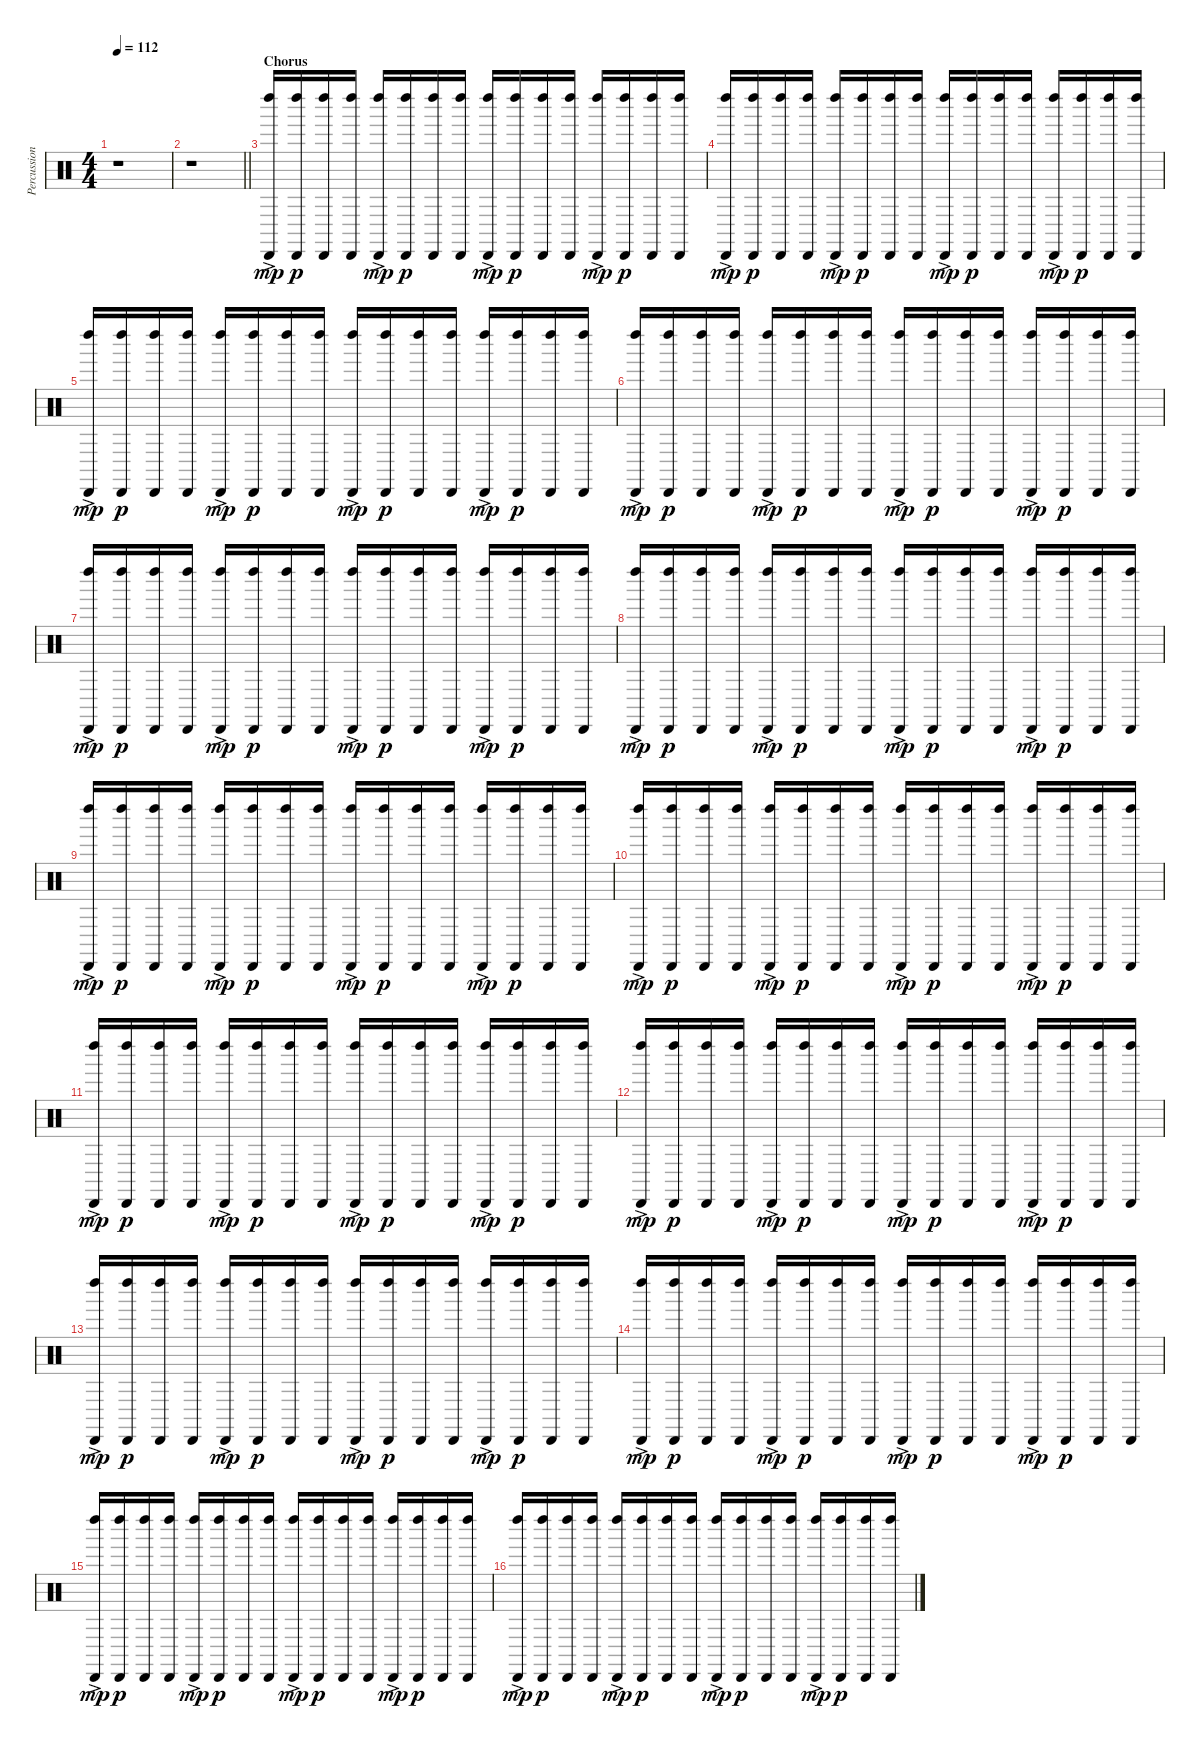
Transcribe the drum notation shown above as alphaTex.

\track ("Percussion" "Percussion") {instrument percussion}
\staff {score}
\articulation defaults
\ts (4 4)
\tempo 112
\clef neutral
\ks c
r.1{dy p} |
\barLineRight lightlight
r.1 |
\section ("" "Chorus")
("Left Maraca (hit)"{ac} "Cabasa (hit)"{ac}).16{dy mp} ("Left Maraca (hit)" "Cabasa (hit)").16{dy p} ("Left Maraca (hit)" "Cabasa (hit)").16 ("Left Maraca (hit)" "Cabasa (hit)").16 ("Left Maraca (hit)"{ac} "Cabasa (hit)"{ac}).16{dy mp} ("Left Maraca (hit)" "Cabasa (hit)").16{dy p} ("Left Maraca (hit)" "Cabasa (hit)").16 ("Left Maraca (hit)" "Cabasa (hit)").16 ("Left Maraca (hit)"{ac} "Cabasa (hit)"{ac}).16{dy mp} ("Left Maraca (hit)" "Cabasa (hit)").16{dy p} ("Left Maraca (hit)" "Cabasa (hit)").16 ("Left Maraca (hit)" "Cabasa (hit)").16 ("Left Maraca (hit)"{ac} "Cabasa (hit)"{ac}).16{dy mp} ("Left Maraca (hit)" "Cabasa (hit)").16{dy p} ("Left Maraca (hit)" "Cabasa (hit)").16 ("Left Maraca (hit)" "Cabasa (hit)").16 |
("Left Maraca (hit)"{ac} "Cabasa (hit)"{ac}).16{dy mp} ("Left Maraca (hit)" "Cabasa (hit)").16{dy p} ("Left Maraca (hit)" "Cabasa (hit)").16 ("Left Maraca (hit)" "Cabasa (hit)").16 ("Left Maraca (hit)"{ac} "Cabasa (hit)"{ac}).16{dy mp} ("Left Maraca (hit)" "Cabasa (hit)").16{dy p} ("Left Maraca (hit)" "Cabasa (hit)").16 ("Left Maraca (hit)" "Cabasa (hit)").16 ("Left Maraca (hit)"{ac} "Cabasa (hit)"{ac}).16{dy mp} ("Left Maraca (hit)" "Cabasa (hit)").16{dy p} ("Left Maraca (hit)" "Cabasa (hit)").16 ("Left Maraca (hit)" "Cabasa (hit)").16 ("Left Maraca (hit)"{ac} "Cabasa (hit)"{ac}).16{dy mp} ("Left Maraca (hit)" "Cabasa (hit)").16{dy p} ("Left Maraca (hit)" "Cabasa (hit)").16 ("Left Maraca (hit)" "Cabasa (hit)").16 |
("Left Maraca (hit)"{ac} "Cabasa (hit)"{ac}).16{dy mp} ("Left Maraca (hit)" "Cabasa (hit)").16{dy p} ("Left Maraca (hit)" "Cabasa (hit)").16 ("Left Maraca (hit)" "Cabasa (hit)").16 ("Left Maraca (hit)"{ac} "Cabasa (hit)"{ac}).16{dy mp} ("Left Maraca (hit)" "Cabasa (hit)").16{dy p} ("Left Maraca (hit)" "Cabasa (hit)").16 ("Left Maraca (hit)" "Cabasa (hit)").16 ("Left Maraca (hit)"{ac} "Cabasa (hit)"{ac}).16{dy mp} ("Left Maraca (hit)" "Cabasa (hit)").16{dy p} ("Left Maraca (hit)" "Cabasa (hit)").16 ("Left Maraca (hit)" "Cabasa (hit)").16 ("Left Maraca (hit)"{ac} "Cabasa (hit)"{ac}).16{dy mp} ("Left Maraca (hit)" "Cabasa (hit)").16{dy p} ("Left Maraca (hit)" "Cabasa (hit)").16 ("Left Maraca (hit)" "Cabasa (hit)").16 |
("Left Maraca (hit)"{ac} "Cabasa (hit)"{ac}).16{dy mp} ("Left Maraca (hit)" "Cabasa (hit)").16{dy p} ("Left Maraca (hit)" "Cabasa (hit)").16 ("Left Maraca (hit)" "Cabasa (hit)").16 ("Left Maraca (hit)"{ac} "Cabasa (hit)"{ac}).16{dy mp} ("Left Maraca (hit)" "Cabasa (hit)").16{dy p} ("Left Maraca (hit)" "Cabasa (hit)").16 ("Left Maraca (hit)" "Cabasa (hit)").16 ("Left Maraca (hit)"{ac} "Cabasa (hit)"{ac}).16{dy mp} ("Left Maraca (hit)" "Cabasa (hit)").16{dy p} ("Left Maraca (hit)" "Cabasa (hit)").16 ("Left Maraca (hit)" "Cabasa (hit)").16 ("Left Maraca (hit)"{ac} "Cabasa (hit)"{ac}).16{dy mp} ("Left Maraca (hit)" "Cabasa (hit)").16{dy p} ("Left Maraca (hit)" "Cabasa (hit)").16 ("Left Maraca (hit)" "Cabasa (hit)").16 |
("Left Maraca (hit)"{ac} "Cabasa (hit)"{ac}).16{dy mp} ("Left Maraca (hit)" "Cabasa (hit)").16{dy p} ("Left Maraca (hit)" "Cabasa (hit)").16 ("Left Maraca (hit)" "Cabasa (hit)").16 ("Left Maraca (hit)"{ac} "Cabasa (hit)"{ac}).16{dy mp} ("Left Maraca (hit)" "Cabasa (hit)").16{dy p} ("Left Maraca (hit)" "Cabasa (hit)").16 ("Left Maraca (hit)" "Cabasa (hit)").16 ("Left Maraca (hit)"{ac} "Cabasa (hit)"{ac}).16{dy mp} ("Left Maraca (hit)" "Cabasa (hit)").16{dy p} ("Left Maraca (hit)" "Cabasa (hit)").16 ("Left Maraca (hit)" "Cabasa (hit)").16 ("Left Maraca (hit)"{ac} "Cabasa (hit)"{ac}).16{dy mp} ("Left Maraca (hit)" "Cabasa (hit)").16{dy p} ("Left Maraca (hit)" "Cabasa (hit)").16 ("Left Maraca (hit)" "Cabasa (hit)").16 |
("Left Maraca (hit)"{ac} "Cabasa (hit)"{ac}).16{dy mp} ("Left Maraca (hit)" "Cabasa (hit)").16{dy p} ("Left Maraca (hit)" "Cabasa (hit)").16 ("Left Maraca (hit)" "Cabasa (hit)").16 ("Left Maraca (hit)"{ac} "Cabasa (hit)"{ac}).16{dy mp} ("Left Maraca (hit)" "Cabasa (hit)").16{dy p} ("Left Maraca (hit)" "Cabasa (hit)").16 ("Left Maraca (hit)" "Cabasa (hit)").16 ("Left Maraca (hit)"{ac} "Cabasa (hit)"{ac}).16{dy mp} ("Left Maraca (hit)" "Cabasa (hit)").16{dy p} ("Left Maraca (hit)" "Cabasa (hit)").16 ("Left Maraca (hit)" "Cabasa (hit)").16 ("Left Maraca (hit)"{ac} "Cabasa (hit)"{ac}).16{dy mp} ("Left Maraca (hit)" "Cabasa (hit)").16{dy p} ("Left Maraca (hit)" "Cabasa (hit)").16 ("Left Maraca (hit)" "Cabasa (hit)").16 |
("Left Maraca (hit)"{ac} "Cabasa (hit)"{ac}).16{dy mp} ("Left Maraca (hit)" "Cabasa (hit)").16{dy p} ("Left Maraca (hit)" "Cabasa (hit)").16 ("Left Maraca (hit)" "Cabasa (hit)").16 ("Left Maraca (hit)"{ac} "Cabasa (hit)"{ac}).16{dy mp} ("Left Maraca (hit)" "Cabasa (hit)").16{dy p} ("Left Maraca (hit)" "Cabasa (hit)").16 ("Left Maraca (hit)" "Cabasa (hit)").16 ("Left Maraca (hit)"{ac} "Cabasa (hit)"{ac}).16{dy mp} ("Left Maraca (hit)" "Cabasa (hit)").16{dy p} ("Left Maraca (hit)" "Cabasa (hit)").16 ("Left Maraca (hit)" "Cabasa (hit)").16 ("Left Maraca (hit)"{ac} "Cabasa (hit)"{ac}).16{dy mp} ("Left Maraca (hit)" "Cabasa (hit)").16{dy p} ("Left Maraca (hit)" "Cabasa (hit)").16 ("Left Maraca (hit)" "Cabasa (hit)").16 |
("Left Maraca (hit)"{ac} "Cabasa (hit)"{ac}).16{dy mp} ("Left Maraca (hit)" "Cabasa (hit)").16{dy p} ("Left Maraca (hit)" "Cabasa (hit)").16 ("Left Maraca (hit)" "Cabasa (hit)").16 ("Left Maraca (hit)"{ac} "Cabasa (hit)"{ac}).16{dy mp} ("Left Maraca (hit)" "Cabasa (hit)").16{dy p} ("Left Maraca (hit)" "Cabasa (hit)").16 ("Left Maraca (hit)" "Cabasa (hit)").16 ("Left Maraca (hit)"{ac} "Cabasa (hit)"{ac}).16{dy mp} ("Left Maraca (hit)" "Cabasa (hit)").16{dy p} ("Left Maraca (hit)" "Cabasa (hit)").16 ("Left Maraca (hit)" "Cabasa (hit)").16 ("Left Maraca (hit)"{ac} "Cabasa (hit)"{ac}).16{dy mp} ("Left Maraca (hit)" "Cabasa (hit)").16{dy p} ("Left Maraca (hit)" "Cabasa (hit)").16 ("Left Maraca (hit)" "Cabasa (hit)").16 |
("Left Maraca (hit)"{ac} "Cabasa (hit)"{ac}).16{dy mp} ("Left Maraca (hit)" "Cabasa (hit)").16{dy p} ("Left Maraca (hit)" "Cabasa (hit)").16 ("Left Maraca (hit)" "Cabasa (hit)").16 ("Left Maraca (hit)"{ac} "Cabasa (hit)"{ac}).16{dy mp} ("Left Maraca (hit)" "Cabasa (hit)").16{dy p} ("Left Maraca (hit)" "Cabasa (hit)").16 ("Left Maraca (hit)" "Cabasa (hit)").16 ("Left Maraca (hit)"{ac} "Cabasa (hit)"{ac}).16{dy mp} ("Left Maraca (hit)" "Cabasa (hit)").16{dy p} ("Left Maraca (hit)" "Cabasa (hit)").16 ("Left Maraca (hit)" "Cabasa (hit)").16 ("Left Maraca (hit)"{ac} "Cabasa (hit)"{ac}).16{dy mp} ("Left Maraca (hit)" "Cabasa (hit)").16{dy p} ("Left Maraca (hit)" "Cabasa (hit)").16 ("Left Maraca (hit)" "Cabasa (hit)").16 |
("Left Maraca (hit)"{ac} "Cabasa (hit)"{ac}).16{dy mp} ("Left Maraca (hit)" "Cabasa (hit)").16{dy p} ("Left Maraca (hit)" "Cabasa (hit)").16 ("Left Maraca (hit)" "Cabasa (hit)").16 ("Left Maraca (hit)"{ac} "Cabasa (hit)"{ac}).16{dy mp} ("Left Maraca (hit)" "Cabasa (hit)").16{dy p} ("Left Maraca (hit)" "Cabasa (hit)").16 ("Left Maraca (hit)" "Cabasa (hit)").16 ("Left Maraca (hit)"{ac} "Cabasa (hit)"{ac}).16{dy mp} ("Left Maraca (hit)" "Cabasa (hit)").16{dy p} ("Left Maraca (hit)" "Cabasa (hit)").16 ("Left Maraca (hit)" "Cabasa (hit)").16 ("Left Maraca (hit)"{ac} "Cabasa (hit)"{ac}).16{dy mp} ("Left Maraca (hit)" "Cabasa (hit)").16{dy p} ("Left Maraca (hit)" "Cabasa (hit)").16 ("Left Maraca (hit)" "Cabasa (hit)").16 |
("Left Maraca (hit)"{ac} "Cabasa (hit)"{ac}).16{dy mp} ("Left Maraca (hit)" "Cabasa (hit)").16{dy p} ("Left Maraca (hit)" "Cabasa (hit)").16 ("Left Maraca (hit)" "Cabasa (hit)").16 ("Left Maraca (hit)"{ac} "Cabasa (hit)"{ac}).16{dy mp} ("Left Maraca (hit)" "Cabasa (hit)").16{dy p} ("Left Maraca (hit)" "Cabasa (hit)").16 ("Left Maraca (hit)" "Cabasa (hit)").16 ("Left Maraca (hit)"{ac} "Cabasa (hit)"{ac}).16{dy mp} ("Left Maraca (hit)" "Cabasa (hit)").16{dy p} ("Left Maraca (hit)" "Cabasa (hit)").16 ("Left Maraca (hit)" "Cabasa (hit)").16 ("Left Maraca (hit)"{ac} "Cabasa (hit)"{ac}).16{dy mp} ("Left Maraca (hit)" "Cabasa (hit)").16{dy p} ("Left Maraca (hit)" "Cabasa (hit)").16 ("Left Maraca (hit)" "Cabasa (hit)").16 |
("Left Maraca (hit)"{ac} "Cabasa (hit)"{ac}).16{dy mp} ("Left Maraca (hit)" "Cabasa (hit)").16{dy p} ("Left Maraca (hit)" "Cabasa (hit)").16 ("Left Maraca (hit)" "Cabasa (hit)").16 ("Left Maraca (hit)"{ac} "Cabasa (hit)"{ac}).16{dy mp} ("Left Maraca (hit)" "Cabasa (hit)").16{dy p} ("Left Maraca (hit)" "Cabasa (hit)").16 ("Left Maraca (hit)" "Cabasa (hit)").16 ("Left Maraca (hit)"{ac} "Cabasa (hit)"{ac}).16{dy mp} ("Left Maraca (hit)" "Cabasa (hit)").16{dy p} ("Left Maraca (hit)" "Cabasa (hit)").16 ("Left Maraca (hit)" "Cabasa (hit)").16 ("Left Maraca (hit)"{ac} "Cabasa (hit)"{ac}).16{dy mp} ("Left Maraca (hit)" "Cabasa (hit)").16{dy p} ("Left Maraca (hit)" "Cabasa (hit)").16 ("Left Maraca (hit)" "Cabasa (hit)").16 |
("Left Maraca (hit)"{ac} "Cabasa (hit)"{ac}).16{dy mp} ("Left Maraca (hit)" "Cabasa (hit)").16{dy p} ("Left Maraca (hit)" "Cabasa (hit)").16 ("Left Maraca (hit)" "Cabasa (hit)").16 ("Left Maraca (hit)"{ac} "Cabasa (hit)"{ac}).16{dy mp} ("Left Maraca (hit)" "Cabasa (hit)").16{dy p} ("Left Maraca (hit)" "Cabasa (hit)").16 ("Left Maraca (hit)" "Cabasa (hit)").16 ("Left Maraca (hit)"{ac} "Cabasa (hit)"{ac}).16{dy mp} ("Left Maraca (hit)" "Cabasa (hit)").16{dy p} ("Left Maraca (hit)" "Cabasa (hit)").16 ("Left Maraca (hit)" "Cabasa (hit)").16 ("Left Maraca (hit)"{ac} "Cabasa (hit)"{ac}).16{dy mp} ("Left Maraca (hit)" "Cabasa (hit)").16{dy p} ("Left Maraca (hit)" "Cabasa (hit)").16 ("Left Maraca (hit)" "Cabasa (hit)").16 |
("Left Maraca (hit)"{ac} "Cabasa (hit)"{ac}).16{dy mp} ("Left Maraca (hit)" "Cabasa (hit)").16{dy p} ("Left Maraca (hit)" "Cabasa (hit)").16 ("Left Maraca (hit)" "Cabasa (hit)").16 ("Left Maraca (hit)"{ac} "Cabasa (hit)"{ac}).16{dy mp} ("Left Maraca (hit)" "Cabasa (hit)").16{dy p} ("Left Maraca (hit)" "Cabasa (hit)").16 ("Left Maraca (hit)" "Cabasa (hit)").16 ("Left Maraca (hit)"{ac} "Cabasa (hit)"{ac}).16{dy mp} ("Left Maraca (hit)" "Cabasa (hit)").16{dy p} ("Left Maraca (hit)" "Cabasa (hit)").16 ("Left Maraca (hit)" "Cabasa (hit)").16 ("Left Maraca (hit)"{ac} "Cabasa (hit)"{ac}).16{dy mp} ("Left Maraca (hit)" "Cabasa (hit)").16{dy p} ("Left Maraca (hit)" "Cabasa (hit)").16 ("Left Maraca (hit)" "Cabasa (hit)").16
